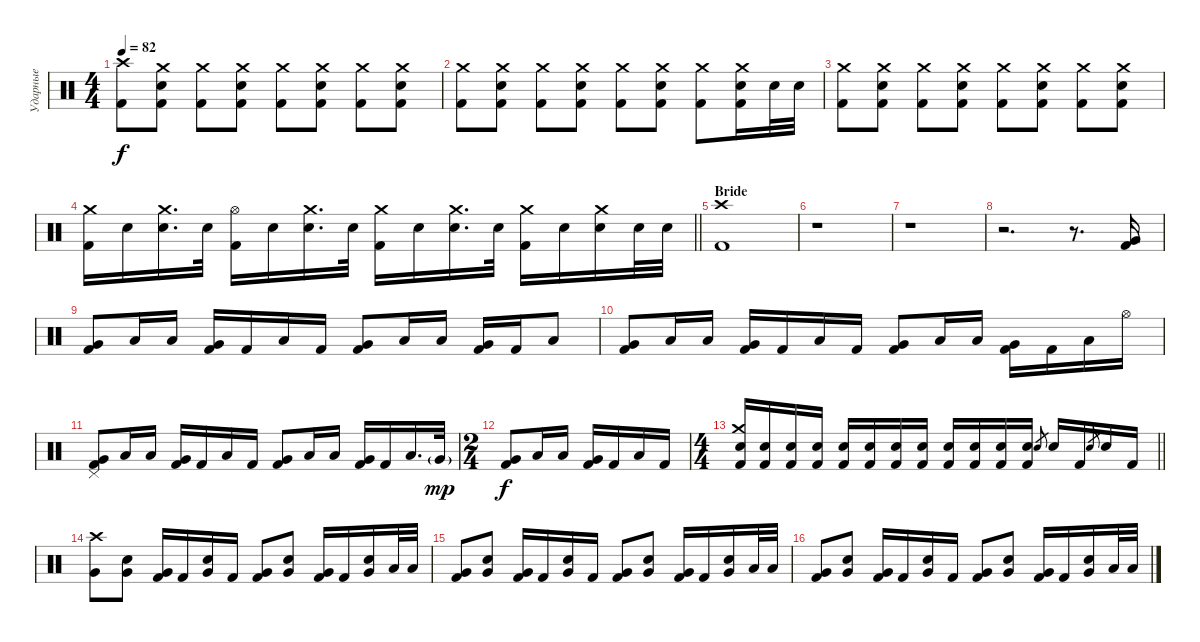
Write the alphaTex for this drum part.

\track ("Ударные" "Ударные") {instrument percussion}
\staff {score}
\articulation defaults
\ts (4 4)
\tempo 82
\clef neutral
\ks c
("Crash high (hit)" "Kick (hit) 2").8{dy f} ("Crash medium (hit)" "Electric Snare (hit)" "Kick (hit) 2").8 ("Crash medium (hit)" "Kick (hit) 2").8 ("Crash medium (hit)" "Electric Snare (hit)" "Kick (hit) 2").8 ("Crash medium (hit)" "Kick (hit) 2").8 ("Crash medium (hit)" "Electric Snare (hit)" "Kick (hit) 2").8 ("Crash medium (hit)" "Kick (hit) 2").8 ("Crash medium (hit)" "Electric Snare (hit)" "Kick (hit) 2").8 |
("Crash medium (hit)" "Kick (hit) 2").8 ("Crash medium (hit)" "Electric Snare (hit)" "Kick (hit) 2").8 ("Crash medium (hit)" "Kick (hit) 2").8 ("Crash medium (hit)" "Electric Snare (hit)" "Kick (hit) 2").8 ("Crash medium (hit)" "Kick (hit) 2").8 ("Crash medium (hit)" "Electric Snare (hit)" "Kick (hit) 2").8 ("Crash medium (hit)" "Kick (hit) 2").8 ("Crash medium (hit)" "Electric Snare (hit)" "Kick (hit) 2").16 "Electric Snare (hit)".32 "Electric Snare (hit)".32 |
("Crash medium (hit)" "Kick (hit) 2").8 ("Crash medium (hit)" "Electric Snare (hit)" "Kick (hit) 2").8 ("Crash medium (hit)" "Kick (hit) 2").8 ("Crash medium (hit)" "Electric Snare (hit)" "Kick (hit) 2").8 ("Crash medium (hit)" "Kick (hit) 2").8 ("Crash medium (hit)" "Electric Snare (hit)" "Kick (hit) 2").8 ("Crash medium (hit)" "Kick (hit) 2").8 ("Crash medium (hit)" "Electric Snare (hit)" "Kick (hit) 2").8 |
\barLineRight lightlight
("Crash medium (hit)" "Kick (hit) 2").16 "Electric Snare (hit)".16 ("Crash medium (hit)" "Electric Snare (hit)").16{d} "Electric Snare (hit)".32 ("Hi-Hat (open)" "Kick (hit) 2").16 "Electric Snare (hit)".16 ("Crash medium (hit)" "Electric Snare (hit)").16{d} "Electric Snare (hit)".32 ("Crash medium (hit)" "Kick (hit) 2").16 "Electric Snare (hit)".16 ("Crash medium (hit)" "Electric Snare (hit)").16{d} "Electric Snare (hit)".32 ("Crash medium (hit)" "Kick (hit) 2").16 "Electric Snare (hit)".16 ("Crash medium (hit)" "Electric Snare (hit)").16 "Electric Snare (hit)".32 "Electric Snare (hit)".32 |
\section ("" "Bride")
("Crash high (hit)" "Kick (hit) 2").1 |
r.1 |
r.1 |
r.2{d} r.8{d} ("Very Low Tom (hit)" "Kick (hit) 2").16 |
("Very Low Tom (hit)" "Kick (hit) 2").8 "Low Tom (hit)".16 "Low Tom (hit)".16 ("Very Low Tom (hit)" "Kick (hit) 2").16 "Kick (hit) 2".16 "Low Tom (hit)".16 "Kick (hit) 2".16 ("Very Low Tom (hit)" "Kick (hit) 2").8 "Low Tom (hit)".16 "Low Tom (hit)".16 ("Very Low Tom (hit)" "Kick (hit) 2").16 "Kick (hit) 2".16 "Low Tom (hit)".8 |
("Very Low Tom (hit)" "Kick (hit) 2").8 "Low Tom (hit)".16 "Low Tom (hit)".16 ("Very Low Tom (hit)" "Kick (hit) 2").16 "Kick (hit) 2".16 "Low Tom (hit)".16 "Kick (hit) 2".16 ("Very Low Tom (hit)" "Kick (hit) 2").8 "Low Tom (hit)".16 "Low Tom (hit)".16 ("Very Low Tom (hit)" "Kick (hit) 2").16 "Kick (hit) 2".16 "Low Tom (hit)".16 "Hi-Hat (open)".16 |
("Pedal Hi-Hat (hit)" "Very Low Tom (hit)" "Kick (hit) 2").8 "Low Tom (hit)".16 "Low Tom (hit)".16 ("Very Low Tom (hit)" "Kick (hit) 2").16 "Kick (hit) 2".16 "Low Tom (hit)".16 "Kick (hit) 2".16 ("Very Low Tom (hit)" "Kick (hit) 2").8 "Low Tom (hit)".16 "Low Tom (hit)".16 ("Very Low Tom (hit)" "Kick (hit) 2").16 "Kick (hit) 2".16 "Low Tom (hit)".16{d} "Very Low Tom (hit)"{g}.32{dy mp} |
\ts (2 4)
("Very Low Tom (hit)" "Kick (hit) 2").8{dy f} "Low Tom (hit)".16 "Low Tom (hit)".16 ("Very Low Tom (hit)" "Kick (hit) 2").16 "Kick (hit) 2".16 "Low Tom (hit)".16 "Kick (hit) 2".16 |
\ts (4 4)
\barLineRight lightlight
("Crash medium (hit)" "Electric Snare (hit)" "Kick (hit) 2").16 ("Electric Snare (hit)" "Kick (hit) 2").16 ("Electric Snare (hit)" "Kick (hit) 2").16 ("Electric Snare (hit)" "Kick (hit) 2").16 ("Electric Snare (hit)" "Kick (hit) 2").16 ("Electric Snare (hit)" "Kick (hit) 2").16 ("Electric Snare (hit)" "Kick (hit) 2").16 ("Electric Snare (hit)" "Kick (hit) 2").16 ("Electric Snare (hit)" "Kick (hit) 2").16 ("Electric Snare (hit)" "Kick (hit) 2").16 ("Electric Snare (hit)" "Kick (hit) 2").16 ("Electric Snare (hit)" "Kick (hit) 2").16 "Electric Snare (hit)".8{gr} "Electric Snare (hit)".16 "Kick (hit) 2".16 "Electric Snare (hit)".8{gr} "Electric Snare (hit)".16 "Kick (hit) 2".16 |
("Crash high (hit)" "Very Low Tom (hit)").8{volume 16} ("Electric Snare (hit)" "Very Low Tom (hit)").8 ("Very Low Tom (hit)" "Kick (hit) 2").16 "Kick (hit) 2".16 ("Electric Snare (hit)" "Very Low Tom (hit)").16 "Kick (hit) 2".16 ("Very Low Tom (hit)" "Kick (hit) 2").8 ("Electric Snare (hit)" "Very Low Tom (hit)").8 ("Very Low Tom (hit)" "Kick (hit) 2").16 "Kick (hit) 2".16 ("Electric Snare (hit)" "Very Low Tom (hit)").16 "Low Tom (hit)".32 "Low Tom (hit)".32 |
("Very Low Tom (hit)" "Kick (hit) 2").8 ("Electric Snare (hit)" "Very Low Tom (hit)").8 ("Very Low Tom (hit)" "Kick (hit) 2").16 "Kick (hit) 2".16 ("Electric Snare (hit)" "Very Low Tom (hit)").16 "Kick (hit) 2".16 ("Very Low Tom (hit)" "Kick (hit) 2").8 ("Electric Snare (hit)" "Very Low Tom (hit)").8 ("Very Low Tom (hit)" "Kick (hit) 2").16 "Kick (hit) 2".16 ("Electric Snare (hit)" "Very Low Tom (hit)").16 "Low Tom (hit)".32 "Low Tom (hit)".32 |
("Very Low Tom (hit)" "Kick (hit) 2").8 ("Electric Snare (hit)" "Very Low Tom (hit)").8 ("Very Low Tom (hit)" "Kick (hit) 2").16 "Kick (hit) 2".16 ("Electric Snare (hit)" "Very Low Tom (hit)").16 "Kick (hit) 2".16 ("Very Low Tom (hit)" "Kick (hit) 2").8 ("Electric Snare (hit)" "Very Low Tom (hit)").8 ("Very Low Tom (hit)" "Kick (hit) 2").16 "Kick (hit) 2".16 ("Electric Snare (hit)" "Very Low Tom (hit)").16 "Low Tom (hit)".32 "Low Tom (hit)".32
